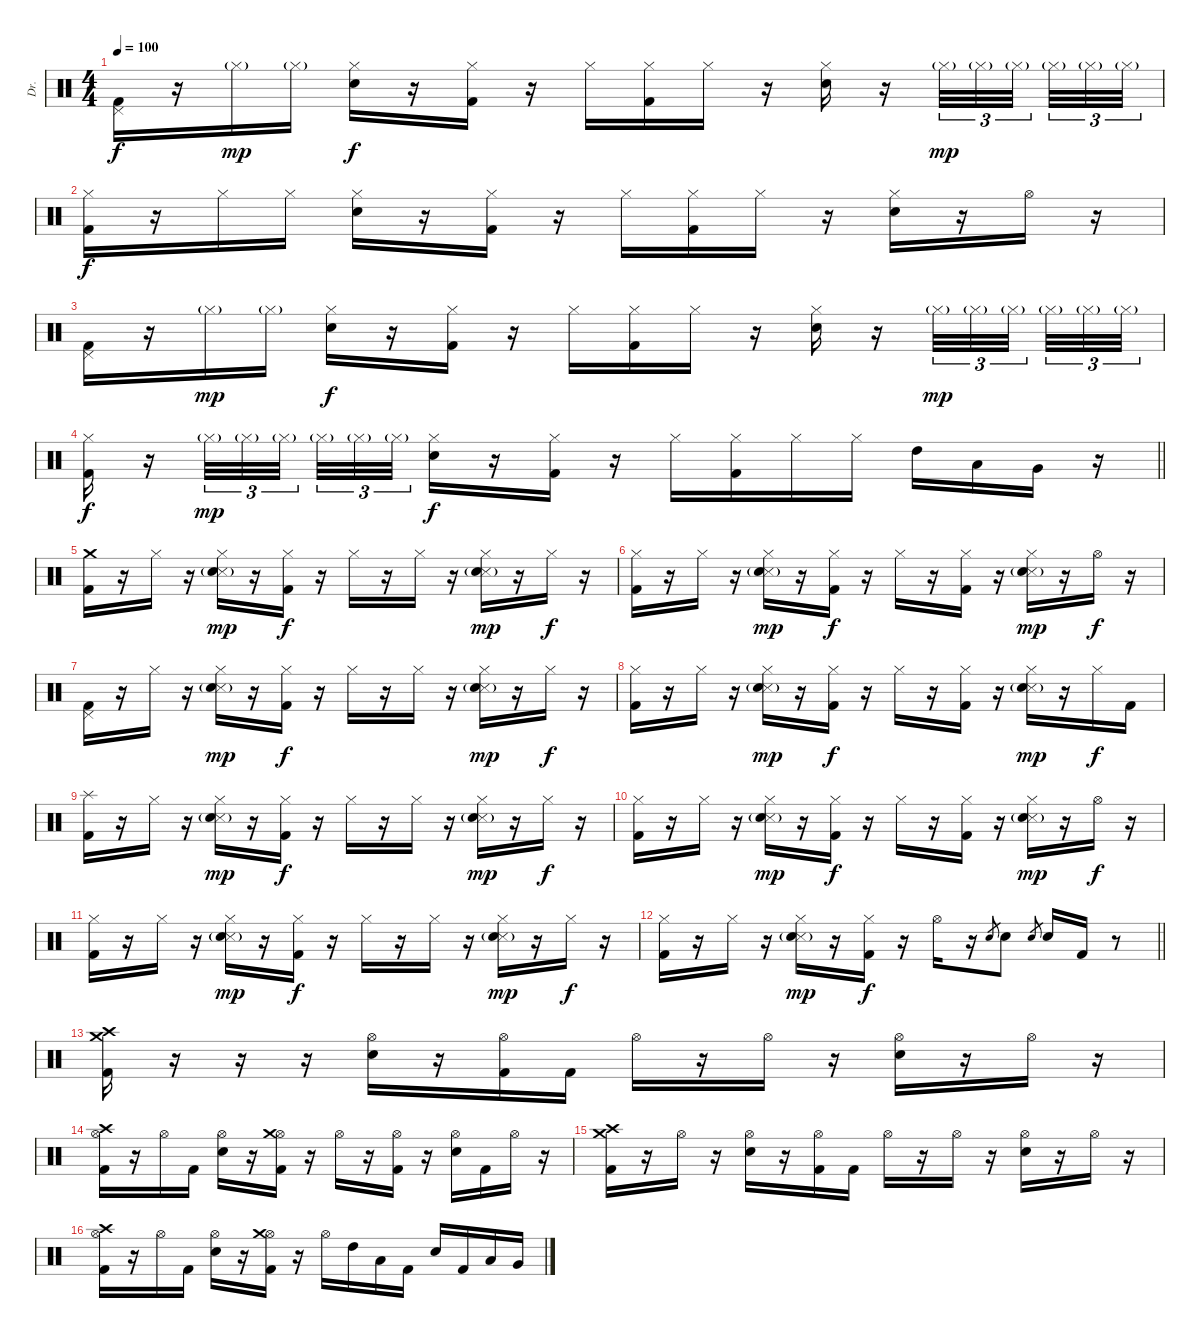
\track ("Dr." "Dr.") {instrument percussion}
\staff {score}
\articulation defaults
\ts (4 4)
\tempo 100
\clef neutral
\ks c
("Pedal Hi-Hat (hit)" "Kick (hit) 2").16{dy f} r.16 "Hi-Hat (closed)"{g}.16{dy mp} "Hi-Hat (closed)"{g}.16 ("Hi-Hat (closed)" "Electric Snare (hit)").16{dy f} r.16 ("Hi-Hat (closed)" "Kick (hit) 2").16 r.16 "Hi-Hat (closed)".16 ("Hi-Hat (closed)" "Kick (hit) 2").16 "Hi-Hat (closed)".16 r.16 ("Hi-Hat (closed)" "Electric Snare (hit)").16 r.16 "Hi-Hat (closed)"{g}.32{tu (3 2) dy mp} "Hi-Hat (closed)"{g}.32{tu (3 2)} "Hi-Hat (closed)"{g}.32{tu (3 2) beam splitsecondary} "Hi-Hat (closed)"{g}.32{tu (3 2)} "Hi-Hat (closed)"{g}.32{tu (3 2)} "Hi-Hat (closed)"{g}.32{tu (3 2)} |
("Hi-Hat (closed)" "Kick (hit) 2").16{dy f} r.16 "Hi-Hat (closed)".16 "Hi-Hat (closed)".16 ("Hi-Hat (closed)" "Electric Snare (hit)").16 r.16 ("Hi-Hat (closed)" "Kick (hit) 2").16 r.16 "Hi-Hat (closed)".16 ("Hi-Hat (closed)" "Kick (hit) 2").16 "Hi-Hat (closed)".16 r.16 ("Hi-Hat (closed)" "Electric Snare (hit)").16 r.16 "Hi-Hat (open)".16 r.16 |
("Pedal Hi-Hat (hit)" "Kick (hit) 2").16 r.16 "Hi-Hat (closed)"{g}.16{dy mp} "Hi-Hat (closed)"{g}.16 ("Hi-Hat (closed)" "Electric Snare (hit)").16{dy f} r.16 ("Hi-Hat (closed)" "Kick (hit) 2").16 r.16 "Hi-Hat (closed)".16 ("Hi-Hat (closed)" "Kick (hit) 2").16 "Hi-Hat (closed)".16 r.16 ("Hi-Hat (closed)" "Electric Snare (hit)").16 r.16 "Hi-Hat (closed)"{g}.32{tu (3 2) dy mp} "Hi-Hat (closed)"{g}.32{tu (3 2)} "Hi-Hat (closed)"{g}.32{tu (3 2) beam splitsecondary} "Hi-Hat (closed)"{g}.32{tu (3 2)} "Hi-Hat (closed)"{g}.32{tu (3 2)} "Hi-Hat (closed)"{g}.32{tu (3 2)} |
\barLineRight lightlight
("Hi-Hat (closed)" "Kick (hit) 2").16{dy f} r.16 "Hi-Hat (closed)"{g}.32{tu (3 2) dy mp} "Hi-Hat (closed)"{g}.32{tu (3 2)} "Hi-Hat (closed)"{g}.32{tu (3 2) beam splitsecondary} "Hi-Hat (closed)"{g}.32{tu (3 2)} "Hi-Hat (closed)"{g}.32{tu (3 2)} "Hi-Hat (closed)"{g}.32{tu (3 2)} ("Hi-Hat (closed)" "Electric Snare (hit)").16{dy f} r.16 ("Hi-Hat (closed)" "Kick (hit) 2").16 r.16 "Hi-Hat (closed)".16 ("Hi-Hat (closed)" "Kick (hit) 2").16 "Hi-Hat (closed)".16 "Hi-Hat (closed)".16 "High Tom (hit)".16 "Low Tom (hit)".16 "Very Low Tom (hit)".16 r.16 |
("Crash medium (hit)" "Kick (hit) 2").16 r.16 "Hi-Hat (closed)".16 r.16 ("Hi-Hat (closed)" "Snare (side stick) 3" "Electric Snare (hit)"{g}).16{dy mp} r.16 ("Hi-Hat (closed)" "Kick (hit) 2").16{dy f} r.16 "Hi-Hat (closed)".16 r.16 "Hi-Hat (closed)".16 r.16 ("Hi-Hat (closed)" "Snare (side stick) 3" "Electric Snare (hit)"{g}).16{dy mp} r.16 "Hi-Hat (closed)".16{dy f} r.16 |
("Hi-Hat (closed)" "Kick (hit) 2").16 r.16 "Hi-Hat (closed)".16 r.16 ("Hi-Hat (closed)" "Snare (side stick) 3" "Electric Snare (hit)"{g}).16{dy mp} r.16 ("Hi-Hat (closed)" "Kick (hit) 2").16{dy f} r.16 "Hi-Hat (closed)".16 r.16 ("Hi-Hat (closed)" "Kick (hit) 2").16 r.16 ("Hi-Hat (closed)" "Snare (side stick) 3" "Electric Snare (hit)"{g}).16{dy mp} r.16 "Hi-Hat (open)".16{dy f} r.16 |
("Pedal Hi-Hat (hit)" "Kick (hit) 2").16 r.16 "Hi-Hat (closed)".16 r.16 ("Hi-Hat (closed)" "Snare (side stick) 3" "Electric Snare (hit)"{g}).16{dy mp} r.16 ("Hi-Hat (closed)" "Kick (hit) 2").16{dy f} r.16 "Hi-Hat (closed)".16 r.16 "Hi-Hat (closed)".16 r.16 ("Hi-Hat (closed)" "Snare (side stick) 3" "Electric Snare (hit)"{g}).16{dy mp} r.16 "Hi-Hat (closed)".16{dy f} r.16 |
("Hi-Hat (closed)" "Kick (hit) 2").16 r.16 "Hi-Hat (closed)".16 r.16 ("Hi-Hat (closed)" "Snare (side stick) 3" "Electric Snare (hit)"{g}).16{dy mp} r.16 ("Hi-Hat (closed)" "Kick (hit) 2").16{dy f} r.16 "Hi-Hat (closed)".16 r.16 ("Hi-Hat (closed)" "Kick (hit) 2").16 r.16 ("Hi-Hat (closed)" "Snare (side stick) 3" "Electric Snare (hit)"{g}).16{dy mp} r.16 "Hi-Hat (closed)".16{dy f} "Kick (hit) 2".16 |
("Splash (hit)" "Kick (hit) 2").16 r.16 "Hi-Hat (closed)".16 r.16 ("Hi-Hat (closed)" "Snare (side stick) 3" "Electric Snare (hit)"{g}).16{dy mp} r.16 ("Hi-Hat (closed)" "Kick (hit) 2").16{dy f} r.16 "Hi-Hat (closed)".16 r.16 "Hi-Hat (closed)".16 r.16 ("Hi-Hat (closed)" "Snare (side stick) 3" "Electric Snare (hit)"{g}).16{dy mp} r.16 "Hi-Hat (closed)".16{dy f} r.16 |
("Hi-Hat (closed)" "Kick (hit) 2").16 r.16 "Hi-Hat (closed)".16 r.16 ("Hi-Hat (closed)" "Snare (side stick) 3" "Electric Snare (hit)"{g}).16{dy mp} r.16 ("Hi-Hat (closed)" "Kick (hit) 2").16{dy f} r.16 "Hi-Hat (closed)".16 r.16 ("Hi-Hat (closed)" "Kick (hit) 2").16 r.16 ("Hi-Hat (closed)" "Snare (side stick) 3" "Electric Snare (hit)"{g}).16{dy mp} r.16 "Hi-Hat (open)".16{dy f} r.16 |
("Hi-Hat (closed)" "Kick (hit) 2").16 r.16 "Hi-Hat (closed)".16 r.16 ("Hi-Hat (closed)" "Snare (side stick) 3" "Electric Snare (hit)"{g}).16{dy mp} r.16 ("Hi-Hat (closed)" "Kick (hit) 2").16{dy f} r.16 "Hi-Hat (closed)".16 r.16 "Hi-Hat (closed)".16 r.16 ("Hi-Hat (closed)" "Snare (side stick) 3" "Electric Snare (hit)"{g}).16{dy mp} r.16 "Hi-Hat (closed)".16{dy f} r.16 |
\barLineRight lightlight
("Hi-Hat (closed)" "Kick (hit) 2").16 r.16 "Hi-Hat (closed)".16 r.16 ("Hi-Hat (closed)" "Snare (side stick) 3" "Electric Snare (hit)"{g}).16{dy mp} r.16 ("Hi-Hat (closed)" "Kick (hit) 2").16{dy f} r.16 "Hi-Hat (open)".16 r.16 "Electric Snare (hit)".8{gr} "Electric Snare (hit)".8 "Electric Snare (hit)".8{gr} "Electric Snare (hit)".16 "Kick (hit) 2".16 r.8 |
("Crash high (hit)" "Crash medium (hit)" "Kick (hit) 2").16 r.16 r.16 r.16 ("Hi-Hat (open)" "Electric Snare (hit)").16 r.16 ("Hi-Hat (open)" "Kick (hit) 2").16 "Kick (hit) 2".16 "Hi-Hat (open)".16 r.16 "Hi-Hat (open)".16 r.16 ("Hi-Hat (open)" "Electric Snare (hit)").16 r.16 "Hi-Hat (open)".16 r.16 |
("Hi-Hat (open)" "Crash high (hit)" "Kick (hit) 2").16 r.16 "Hi-Hat (open)".16 "Kick (hit) 2".16 ("Hi-Hat (open)" "Electric Snare (hit)").16 r.16 ("Hi-Hat (open)" "Crash medium (hit)" "Kick (hit) 2").16 r.16 "Hi-Hat (open)".16 r.16 ("Hi-Hat (open)" "Kick (hit) 2").16 r.16 ("Hi-Hat (open)" "Electric Snare (hit)").16 "Kick (hit) 2".16 "Hi-Hat (open)".16 r.16 |
("Crash high (hit)" "Crash medium (hit)" "Kick (hit) 2").16 r.16 "Hi-Hat (open)".16 r.16 ("Hi-Hat (open)" "Electric Snare (hit)").16 r.16 ("Hi-Hat (open)" "Kick (hit) 2").16 "Kick (hit) 2".16 "Hi-Hat (open)".16 r.16 "Hi-Hat (open)".16 r.16 ("Hi-Hat (open)" "Electric Snare (hit)").16 r.16 "Hi-Hat (open)".16 r.16 |
("Hi-Hat (open)" "Crash high (hit)" "Kick (hit) 2").16 r.16 "Hi-Hat (open)".16 "Kick (hit) 2".16 ("Hi-Hat (open)" "Electric Snare (hit)").16 r.16 ("Hi-Hat (open)" "Crash medium (hit)" "Kick (hit) 2").16 r.16 "Hi-Hat (open)".16 "High Tom (hit)".16 "Low Tom (hit)".16 "Kick (hit) 2".16 "Electric Snare (hit)".16 "Kick (hit) 2".16 "Low Tom (hit)".16 "Very Low Tom (hit)".16
